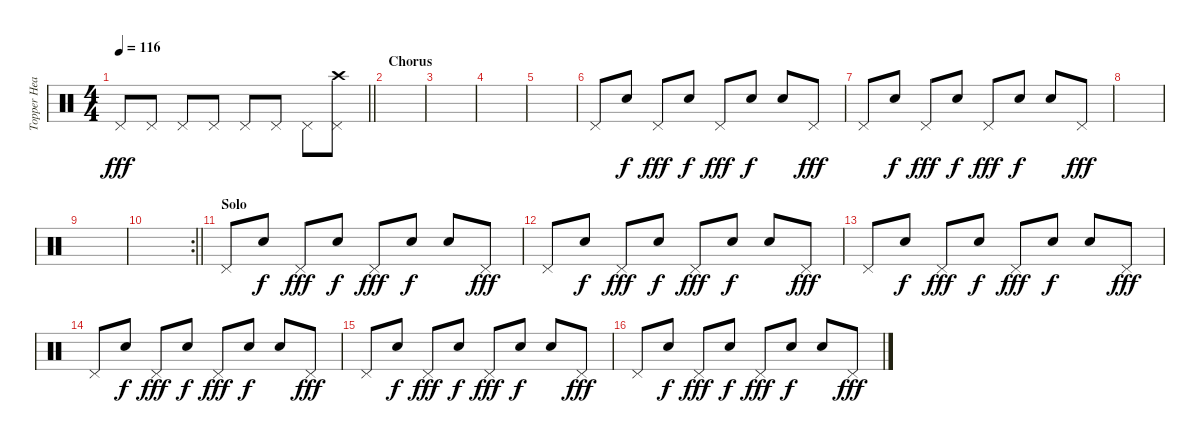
\track ("Topper Headon - Percussion" "Topper Hea") {instrument percussion}
\staff {score}
\articulation defaults
\ts (4 4)
\tempo 116
\clef neutral
\barLineRight lightlight
\ks c "Pedal Hi-Hat (hit)".8{dy fff} "Pedal Hi-Hat (hit)".8 "Pedal Hi-Hat (hit)".8 "Pedal Hi-Hat (hit)".8 "Pedal Hi-Hat (hit)".8 "Pedal Hi-Hat (hit)".8 "Pedal Hi-Hat (hit)".8
("Crash high (hit)" "Pedal Hi-Hat (hit)").8 |
\section ("" "Chorus")
|
|
|
|
"Pedal Hi-Hat (hit)".8 "Hand Clap (hit)".8{dy f} "Pedal Hi-Hat (hit)".8{dy fff} "Hand Clap (hit)".8{dy f} "Pedal Hi-Hat (hit)".8{dy fff} "Hand Clap (hit)".8{dy f} "Hand Clap (hit)".8 "Pedal Hi-Hat (hit)".8{dy fff} |
"Pedal Hi-Hat (hit)".8 "Hand Clap (hit)".8{dy f} "Pedal Hi-Hat (hit)".8{dy fff} "Hand Clap (hit)".8{dy f} "Pedal Hi-Hat (hit)".8{dy fff} "Hand Clap (hit)".8{dy f} "Hand Clap (hit)".8 "Pedal Hi-Hat (hit)".8{dy fff} |
|
|
\rc 2
\barLineRight lightlight
|
\section ("" "Solo")
"Pedal Hi-Hat (hit)".8 "Hand Clap (hit)".8{dy f} "Pedal Hi-Hat (hit)".8{dy fff} "Hand Clap (hit)".8{dy f} "Pedal Hi-Hat (hit)".8{dy fff} "Hand Clap (hit)".8{dy f} "Hand Clap (hit)".8 "Pedal Hi-Hat (hit)".8{dy fff} |
"Pedal Hi-Hat (hit)".8 "Hand Clap (hit)".8{dy f} "Pedal Hi-Hat (hit)".8{dy fff} "Hand Clap (hit)".8{dy f} "Pedal Hi-Hat (hit)".8{dy fff} "Hand Clap (hit)".8{dy f} "Hand Clap (hit)".8 "Pedal Hi-Hat (hit)".8{dy fff} |
"Pedal Hi-Hat (hit)".8 "Hand Clap (hit)".8{dy f} "Pedal Hi-Hat (hit)".8{dy fff} "Hand Clap (hit)".8{dy f} "Pedal Hi-Hat (hit)".8{dy fff} "Hand Clap (hit)".8{dy f} "Hand Clap (hit)".8 "Pedal Hi-Hat (hit)".8{dy fff} |
"Pedal Hi-Hat (hit)".8 "Hand Clap (hit)".8{dy f} "Pedal Hi-Hat (hit)".8{dy fff} "Hand Clap (hit)".8{dy f} "Pedal Hi-Hat (hit)".8{dy fff} "Hand Clap (hit)".8{dy f} "Hand Clap (hit)".8 "Pedal Hi-Hat (hit)".8{dy fff} |
"Pedal Hi-Hat (hit)".8 "Hand Clap (hit)".8{dy f} "Pedal Hi-Hat (hit)".8{dy fff} "Hand Clap (hit)".8{dy f} "Pedal Hi-Hat (hit)".8{dy fff} "Hand Clap (hit)".8{dy f} "Hand Clap (hit)".8 "Pedal Hi-Hat (hit)".8{dy fff} |
"Pedal Hi-Hat (hit)".8 "Hand Clap (hit)".8{dy f} "Pedal Hi-Hat (hit)".8{dy fff} "Hand Clap (hit)".8{dy f} "Pedal Hi-Hat (hit)".8{dy fff} "Hand Clap (hit)".8{dy f} "Hand Clap (hit)".8 "Pedal Hi-Hat (hit)".8{dy fff}
